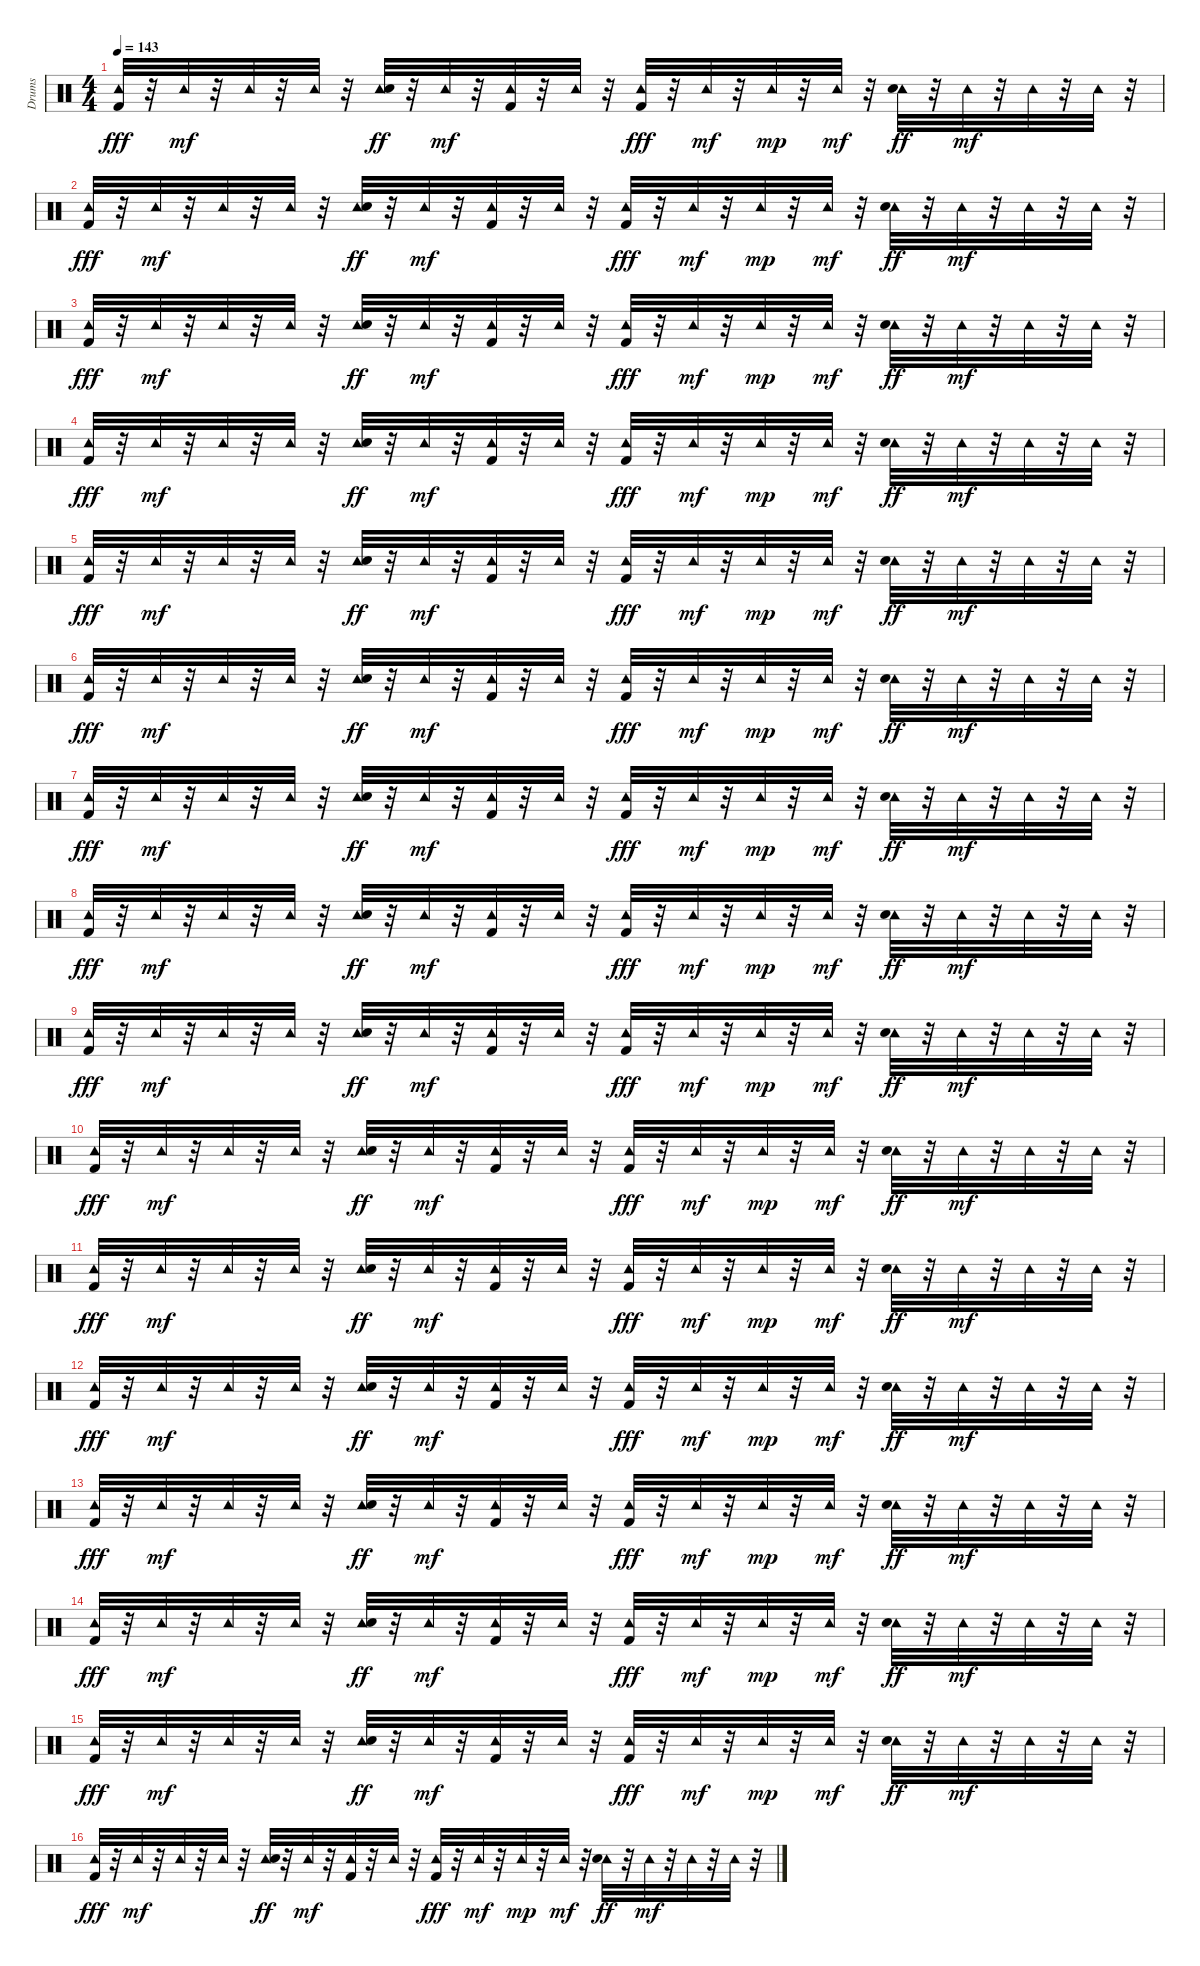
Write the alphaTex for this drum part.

\track ("Drums" "Drums") {instrument percussion}
\staff {score}
\articulation defaults
\ts (4 4)
\tempo 143
\clef neutral
\ks c
("Kick (hit) 2" "Tambourine (hit)").32{dy fff} r.32 "Tambourine (hit)".32{dy mf} r.32 "Tambourine (hit)".32 r.32 "Tambourine (hit)".32 r.32 ("Tambourine (hit)" "Snare (hit) 2").32{dy ff} r.32 "Tambourine (hit)".32{dy mf} r.32 ("Kick (hit) 2" "Tambourine (hit)").32 r.32 "Tambourine (hit)".32 r.32 ("Kick (hit) 2" "Tambourine (hit)").32{dy fff} r.32 "Tambourine (hit)".32{dy mf} r.32 "Tambourine (hit)".32{dy mp} r.32 "Tambourine (hit)".32{dy mf} r.32 ("Tambourine (hit)" "Snare (hit) 2").32{dy ff} r.32 "Tambourine (hit)".32{dy mf} r.32 "Tambourine (hit)".32 r.32 "Tambourine (hit)".32 r.32 |
("Kick (hit) 2" "Tambourine (hit)").32{dy fff} r.32 "Tambourine (hit)".32{dy mf} r.32 "Tambourine (hit)".32 r.32 "Tambourine (hit)".32 r.32 ("Tambourine (hit)" "Snare (hit) 2").32{dy ff} r.32 "Tambourine (hit)".32{dy mf} r.32 ("Kick (hit) 2" "Tambourine (hit)").32 r.32 "Tambourine (hit)".32 r.32 ("Kick (hit) 2" "Tambourine (hit)").32{dy fff} r.32 "Tambourine (hit)".32{dy mf} r.32 "Tambourine (hit)".32{dy mp} r.32 "Tambourine (hit)".32{dy mf} r.32 ("Tambourine (hit)" "Snare (hit) 2").32{dy ff} r.32 "Tambourine (hit)".32{dy mf} r.32 "Tambourine (hit)".32 r.32 "Tambourine (hit)".32 r.32 |
("Kick (hit) 2" "Tambourine (hit)").32{dy fff} r.32 "Tambourine (hit)".32{dy mf} r.32 "Tambourine (hit)".32 r.32 "Tambourine (hit)".32 r.32 ("Tambourine (hit)" "Snare (hit) 2").32{dy ff} r.32 "Tambourine (hit)".32{dy mf} r.32 ("Kick (hit) 2" "Tambourine (hit)").32 r.32 "Tambourine (hit)".32 r.32 ("Kick (hit) 2" "Tambourine (hit)").32{dy fff} r.32 "Tambourine (hit)".32{dy mf} r.32 "Tambourine (hit)".32{dy mp} r.32 "Tambourine (hit)".32{dy mf} r.32 ("Tambourine (hit)" "Snare (hit) 2").32{dy ff} r.32 "Tambourine (hit)".32{dy mf} r.32 "Tambourine (hit)".32 r.32 "Tambourine (hit)".32 r.32 |
("Kick (hit) 2" "Tambourine (hit)").32{dy fff} r.32 "Tambourine (hit)".32{dy mf} r.32 "Tambourine (hit)".32 r.32 "Tambourine (hit)".32 r.32 ("Tambourine (hit)" "Snare (hit) 2").32{dy ff} r.32 "Tambourine (hit)".32{dy mf} r.32 ("Kick (hit) 2" "Tambourine (hit)").32 r.32 "Tambourine (hit)".32 r.32 ("Kick (hit) 2" "Tambourine (hit)").32{dy fff} r.32 "Tambourine (hit)".32{dy mf} r.32 "Tambourine (hit)".32{dy mp} r.32 "Tambourine (hit)".32{dy mf} r.32 ("Tambourine (hit)" "Snare (hit) 2").32{dy ff} r.32 "Tambourine (hit)".32{dy mf} r.32 "Tambourine (hit)".32 r.32 "Tambourine (hit)".32 r.32 |
("Kick (hit) 2" "Tambourine (hit)").32{dy fff} r.32 "Tambourine (hit)".32{dy mf} r.32 "Tambourine (hit)".32 r.32 "Tambourine (hit)".32 r.32 ("Tambourine (hit)" "Snare (hit) 2").32{dy ff} r.32 "Tambourine (hit)".32{dy mf} r.32 ("Kick (hit) 2" "Tambourine (hit)").32 r.32 "Tambourine (hit)".32 r.32 ("Kick (hit) 2" "Tambourine (hit)").32{dy fff} r.32 "Tambourine (hit)".32{dy mf} r.32 "Tambourine (hit)".32{dy mp} r.32 "Tambourine (hit)".32{dy mf} r.32 ("Tambourine (hit)" "Snare (hit) 2").32{dy ff} r.32 "Tambourine (hit)".32{dy mf} r.32 "Tambourine (hit)".32 r.32 "Tambourine (hit)".32 r.32 |
("Kick (hit) 2" "Tambourine (hit)").32{dy fff} r.32 "Tambourine (hit)".32{dy mf} r.32 "Tambourine (hit)".32 r.32 "Tambourine (hit)".32 r.32 ("Tambourine (hit)" "Snare (hit) 2").32{dy ff} r.32 "Tambourine (hit)".32{dy mf} r.32 ("Kick (hit) 2" "Tambourine (hit)").32 r.32 "Tambourine (hit)".32 r.32 ("Kick (hit) 2" "Tambourine (hit)").32{dy fff} r.32 "Tambourine (hit)".32{dy mf} r.32 "Tambourine (hit)".32{dy mp} r.32 "Tambourine (hit)".32{dy mf} r.32 ("Tambourine (hit)" "Snare (hit) 2").32{dy ff} r.32 "Tambourine (hit)".32{dy mf} r.32 "Tambourine (hit)".32 r.32 "Tambourine (hit)".32 r.32 |
("Kick (hit) 2" "Tambourine (hit)").32{dy fff} r.32 "Tambourine (hit)".32{dy mf} r.32 "Tambourine (hit)".32 r.32 "Tambourine (hit)".32 r.32 ("Tambourine (hit)" "Snare (hit) 2").32{dy ff} r.32 "Tambourine (hit)".32{dy mf} r.32 ("Kick (hit) 2" "Tambourine (hit)").32 r.32 "Tambourine (hit)".32 r.32 ("Kick (hit) 2" "Tambourine (hit)").32{dy fff} r.32 "Tambourine (hit)".32{dy mf} r.32 "Tambourine (hit)".32{dy mp} r.32 "Tambourine (hit)".32{dy mf} r.32 ("Tambourine (hit)" "Snare (hit) 2").32{dy ff} r.32 "Tambourine (hit)".32{dy mf} r.32 "Tambourine (hit)".32 r.32 "Tambourine (hit)".32 r.32 |
("Kick (hit) 2" "Tambourine (hit)").32{dy fff} r.32 "Tambourine (hit)".32{dy mf} r.32 "Tambourine (hit)".32 r.32 "Tambourine (hit)".32 r.32 ("Tambourine (hit)" "Snare (hit) 2").32{dy ff} r.32 "Tambourine (hit)".32{dy mf} r.32 ("Kick (hit) 2" "Tambourine (hit)").32 r.32 "Tambourine (hit)".32 r.32 ("Kick (hit) 2" "Tambourine (hit)").32{dy fff} r.32 "Tambourine (hit)".32{dy mf} r.32 "Tambourine (hit)".32{dy mp} r.32 "Tambourine (hit)".32{dy mf} r.32 ("Tambourine (hit)" "Snare (hit) 2").32{dy ff} r.32 "Tambourine (hit)".32{dy mf} r.32 "Tambourine (hit)".32 r.32 "Tambourine (hit)".32 r.32 |
("Kick (hit) 2" "Tambourine (hit)").32{dy fff} r.32 "Tambourine (hit)".32{dy mf} r.32 "Tambourine (hit)".32 r.32 "Tambourine (hit)".32 r.32 ("Tambourine (hit)" "Snare (hit) 2").32{dy ff} r.32 "Tambourine (hit)".32{dy mf} r.32 ("Kick (hit) 2" "Tambourine (hit)").32 r.32 "Tambourine (hit)".32 r.32 ("Kick (hit) 2" "Tambourine (hit)").32{dy fff} r.32 "Tambourine (hit)".32{dy mf} r.32 "Tambourine (hit)".32{dy mp} r.32 "Tambourine (hit)".32{dy mf} r.32 ("Tambourine (hit)" "Snare (hit) 2").32{dy ff} r.32 "Tambourine (hit)".32{dy mf} r.32 "Tambourine (hit)".32 r.32 "Tambourine (hit)".32 r.32 |
("Kick (hit) 2" "Tambourine (hit)").32{dy fff} r.32 "Tambourine (hit)".32{dy mf} r.32 "Tambourine (hit)".32 r.32 "Tambourine (hit)".32 r.32 ("Tambourine (hit)" "Snare (hit) 2").32{dy ff} r.32 "Tambourine (hit)".32{dy mf} r.32 ("Kick (hit) 2" "Tambourine (hit)").32 r.32 "Tambourine (hit)".32 r.32 ("Kick (hit) 2" "Tambourine (hit)").32{dy fff} r.32 "Tambourine (hit)".32{dy mf} r.32 "Tambourine (hit)".32{dy mp} r.32 "Tambourine (hit)".32{dy mf} r.32 ("Tambourine (hit)" "Snare (hit) 2").32{dy ff} r.32 "Tambourine (hit)".32{dy mf} r.32 "Tambourine (hit)".32 r.32 "Tambourine (hit)".32 r.32 |
("Kick (hit) 2" "Tambourine (hit)").32{dy fff} r.32 "Tambourine (hit)".32{dy mf} r.32 "Tambourine (hit)".32 r.32 "Tambourine (hit)".32 r.32 ("Tambourine (hit)" "Snare (hit) 2").32{dy ff} r.32 "Tambourine (hit)".32{dy mf} r.32 ("Kick (hit) 2" "Tambourine (hit)").32 r.32 "Tambourine (hit)".32 r.32 ("Kick (hit) 2" "Tambourine (hit)").32{dy fff} r.32 "Tambourine (hit)".32{dy mf} r.32 "Tambourine (hit)".32{dy mp} r.32 "Tambourine (hit)".32{dy mf} r.32 ("Tambourine (hit)" "Snare (hit) 2").32{dy ff} r.32 "Tambourine (hit)".32{dy mf} r.32 "Tambourine (hit)".32 r.32 "Tambourine (hit)".32 r.32 |
("Kick (hit) 2" "Tambourine (hit)").32{dy fff} r.32 "Tambourine (hit)".32{dy mf} r.32 "Tambourine (hit)".32 r.32 "Tambourine (hit)".32 r.32 ("Tambourine (hit)" "Snare (hit) 2").32{dy ff} r.32 "Tambourine (hit)".32{dy mf} r.32 ("Kick (hit) 2" "Tambourine (hit)").32 r.32 "Tambourine (hit)".32 r.32 ("Kick (hit) 2" "Tambourine (hit)").32{dy fff} r.32 "Tambourine (hit)".32{dy mf} r.32 "Tambourine (hit)".32{dy mp} r.32 "Tambourine (hit)".32{dy mf} r.32 ("Tambourine (hit)" "Snare (hit) 2").32{dy ff} r.32 "Tambourine (hit)".32{dy mf} r.32 "Tambourine (hit)".32 r.32 "Tambourine (hit)".32 r.32 |
("Kick (hit) 2" "Tambourine (hit)").32{dy fff} r.32 "Tambourine (hit)".32{dy mf} r.32 "Tambourine (hit)".32 r.32 "Tambourine (hit)".32 r.32 ("Tambourine (hit)" "Snare (hit) 2").32{dy ff} r.32 "Tambourine (hit)".32{dy mf} r.32 ("Kick (hit) 2" "Tambourine (hit)").32 r.32 "Tambourine (hit)".32 r.32 ("Kick (hit) 2" "Tambourine (hit)").32{dy fff} r.32 "Tambourine (hit)".32{dy mf} r.32 "Tambourine (hit)".32{dy mp} r.32 "Tambourine (hit)".32{dy mf} r.32 ("Tambourine (hit)" "Snare (hit) 2").32{dy ff} r.32 "Tambourine (hit)".32{dy mf} r.32 "Tambourine (hit)".32 r.32 "Tambourine (hit)".32 r.32 |
("Kick (hit) 2" "Tambourine (hit)").32{dy fff} r.32 "Tambourine (hit)".32{dy mf} r.32 "Tambourine (hit)".32 r.32 "Tambourine (hit)".32 r.32 ("Tambourine (hit)" "Snare (hit) 2").32{dy ff} r.32 "Tambourine (hit)".32{dy mf} r.32 ("Kick (hit) 2" "Tambourine (hit)").32 r.32 "Tambourine (hit)".32 r.32 ("Kick (hit) 2" "Tambourine (hit)").32{dy fff} r.32 "Tambourine (hit)".32{dy mf} r.32 "Tambourine (hit)".32{dy mp} r.32 "Tambourine (hit)".32{dy mf} r.32 ("Tambourine (hit)" "Snare (hit) 2").32{dy ff} r.32 "Tambourine (hit)".32{dy mf} r.32 "Tambourine (hit)".32 r.32 "Tambourine (hit)".32 r.32 |
("Kick (hit) 2" "Tambourine (hit)").32{dy fff} r.32 "Tambourine (hit)".32{dy mf} r.32 "Tambourine (hit)".32 r.32 "Tambourine (hit)".32 r.32 ("Tambourine (hit)" "Snare (hit) 2").32{dy ff} r.32 "Tambourine (hit)".32{dy mf} r.32 ("Kick (hit) 2" "Tambourine (hit)").32 r.32 "Tambourine (hit)".32 r.32 ("Kick (hit) 2" "Tambourine (hit)").32{dy fff} r.32 "Tambourine (hit)".32{dy mf} r.32 "Tambourine (hit)".32{dy mp} r.32 "Tambourine (hit)".32{dy mf} r.32 ("Tambourine (hit)" "Snare (hit) 2").32{dy ff} r.32 "Tambourine (hit)".32{dy mf} r.32 "Tambourine (hit)".32 r.32 "Tambourine (hit)".32 r.32 |
("Kick (hit) 2" "Tambourine (hit)").32{dy fff} r.32 "Tambourine (hit)".32{dy mf} r.32 "Tambourine (hit)".32 r.32 "Tambourine (hit)".32 r.32 ("Tambourine (hit)" "Snare (hit) 2").32{dy ff} r.32 "Tambourine (hit)".32{dy mf} r.32 ("Kick (hit) 2" "Tambourine (hit)").32 r.32 "Tambourine (hit)".32 r.32 ("Kick (hit) 2" "Tambourine (hit)").32{dy fff} r.32 "Tambourine (hit)".32{dy mf} r.32 "Tambourine (hit)".32{dy mp} r.32 "Tambourine (hit)".32{dy mf} r.32 ("Tambourine (hit)" "Snare (hit) 2").32{dy ff} r.32 "Tambourine (hit)".32{dy mf} r.32 "Tambourine (hit)".32 r.32 "Tambourine (hit)".32 r.32
